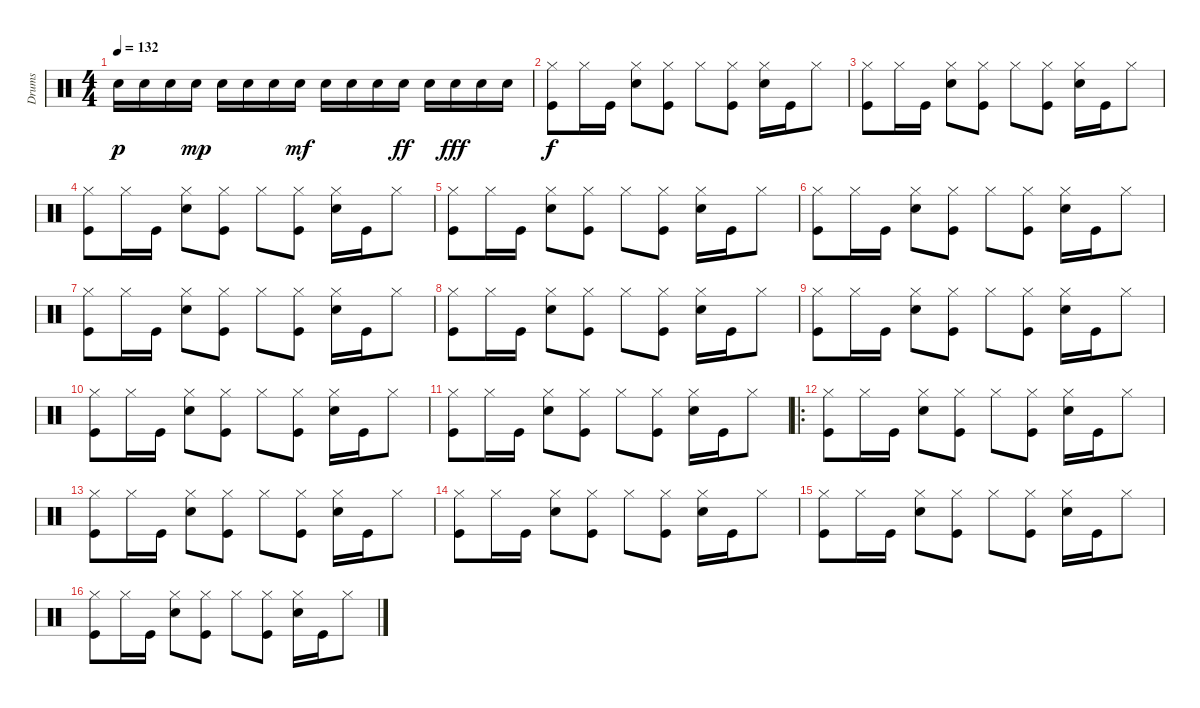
\track ("Drums" "Drums") {instrument percussion}
\staff {score}
\articulation defaults
\ts (4 4)
\tempo 132
\clef neutral
\ks c "Electric Snare (hit)".16{dy p} "Electric Snare (hit)".16 "Electric Snare (hit)".16 "Electric Snare (hit)".16{dy mp} "Electric Snare (hit)".16 "Electric Snare (hit)".16 "Electric Snare (hit)".16 "Electric Snare (hit)".16{dy mf} "Electric Snare (hit)".16 "Electric Snare (hit)".16 "Electric Snare (hit)".16 "Electric Snare (hit)".16{dy ff} "Electric Snare (hit)".16 "Electric Snare (hit)".16{dy fff} "Electric Snare (hit)".16 "Electric Snare (hit)".16
|
("Hi-Hat (closed)" "Kick (hit)").8{dy f} "Hi-Hat (closed)".16 "Kick (hit)".16 ("Hi-Hat (closed)" "Electric Snare (hit)").8 ("Hi-Hat (closed)" "Kick (hit)").8 "Hi-Hat (closed)".8 ("Hi-Hat (closed)" "Kick (hit)").8 ("Hi-Hat (closed)" "Electric Snare (hit)").16 "Kick (hit)".16 "Hi-Hat (closed)".8 |
("Hi-Hat (closed)" "Kick (hit)").8 "Hi-Hat (closed)".16 "Kick (hit)".16 ("Hi-Hat (closed)" "Electric Snare (hit)").8 ("Hi-Hat (closed)" "Kick (hit)").8 "Hi-Hat (closed)".8 ("Hi-Hat (closed)" "Kick (hit)").8 ("Hi-Hat (closed)" "Electric Snare (hit)").16 "Kick (hit)".16 "Hi-Hat (closed)".8 |
("Hi-Hat (closed)" "Kick (hit)").8 "Hi-Hat (closed)".16 "Kick (hit)".16 ("Hi-Hat (closed)" "Electric Snare (hit)").8 ("Hi-Hat (closed)" "Kick (hit)").8 "Hi-Hat (closed)".8 ("Hi-Hat (closed)" "Kick (hit)").8 ("Hi-Hat (closed)" "Electric Snare (hit)").16 "Kick (hit)".16 "Hi-Hat (closed)".8 |
("Hi-Hat (closed)" "Kick (hit)").8 "Hi-Hat (closed)".16 "Kick (hit)".16 ("Hi-Hat (closed)" "Electric Snare (hit)").8 ("Hi-Hat (closed)" "Kick (hit)").8 "Hi-Hat (closed)".8 ("Hi-Hat (closed)" "Kick (hit)").8 ("Hi-Hat (closed)" "Electric Snare (hit)").16 "Kick (hit)".16 "Hi-Hat (closed)".8 |
("Hi-Hat (closed)" "Kick (hit)").8 "Hi-Hat (closed)".16 "Kick (hit)".16 ("Hi-Hat (closed)" "Electric Snare (hit)").8 ("Hi-Hat (closed)" "Kick (hit)").8 "Hi-Hat (closed)".8 ("Hi-Hat (closed)" "Kick (hit)").8 ("Hi-Hat (closed)" "Electric Snare (hit)").16 "Kick (hit)".16 "Hi-Hat (closed)".8 |
("Hi-Hat (closed)" "Kick (hit)").8 "Hi-Hat (closed)".16 "Kick (hit)".16 ("Hi-Hat (closed)" "Electric Snare (hit)").8 ("Hi-Hat (closed)" "Kick (hit)").8 "Hi-Hat (closed)".8 ("Hi-Hat (closed)" "Kick (hit)").8 ("Hi-Hat (closed)" "Electric Snare (hit)").16 "Kick (hit)".16 "Hi-Hat (closed)".8 |
("Hi-Hat (closed)" "Kick (hit)").8 "Hi-Hat (closed)".16 "Kick (hit)".16 ("Hi-Hat (closed)" "Electric Snare (hit)").8 ("Hi-Hat (closed)" "Kick (hit)").8 "Hi-Hat (closed)".8 ("Hi-Hat (closed)" "Kick (hit)").8 ("Hi-Hat (closed)" "Electric Snare (hit)").16 "Kick (hit)".16 "Hi-Hat (closed)".8 |
("Hi-Hat (closed)" "Kick (hit)").8 "Hi-Hat (closed)".16 "Kick (hit)".16 ("Hi-Hat (closed)" "Electric Snare (hit)").8 ("Hi-Hat (closed)" "Kick (hit)").8 "Hi-Hat (closed)".8 ("Hi-Hat (closed)" "Kick (hit)").8 ("Hi-Hat (closed)" "Electric Snare (hit)").16 "Kick (hit)".16 "Hi-Hat (closed)".8 |
("Hi-Hat (closed)" "Kick (hit)").8 "Hi-Hat (closed)".16 "Kick (hit)".16 ("Hi-Hat (closed)" "Electric Snare (hit)").8 ("Hi-Hat (closed)" "Kick (hit)").8 "Hi-Hat (closed)".8 ("Hi-Hat (closed)" "Kick (hit)").8 ("Hi-Hat (closed)" "Electric Snare (hit)").16 "Kick (hit)".16 "Hi-Hat (closed)".8 |
("Hi-Hat (closed)" "Kick (hit)").8 "Hi-Hat (closed)".16 "Kick (hit)".16 ("Hi-Hat (closed)" "Electric Snare (hit)").8 ("Hi-Hat (closed)" "Kick (hit)").8 "Hi-Hat (closed)".8 ("Hi-Hat (closed)" "Kick (hit)").8 ("Hi-Hat (closed)" "Electric Snare (hit)").16 "Kick (hit)".16 "Hi-Hat (closed)".8 |
\ro
("Hi-Hat (closed)" "Kick (hit)").8 "Hi-Hat (closed)".16 "Kick (hit)".16 ("Hi-Hat (closed)" "Electric Snare (hit)").8 ("Hi-Hat (closed)" "Kick (hit)").8 "Hi-Hat (closed)".8 ("Hi-Hat (closed)" "Kick (hit)").8 ("Hi-Hat (closed)" "Electric Snare (hit)").16 "Kick (hit)".16 "Hi-Hat (closed)".8 |
("Hi-Hat (closed)" "Kick (hit)").8 "Hi-Hat (closed)".16 "Kick (hit)".16 ("Hi-Hat (closed)" "Electric Snare (hit)").8 ("Hi-Hat (closed)" "Kick (hit)").8 "Hi-Hat (closed)".8 ("Hi-Hat (closed)" "Kick (hit)").8 ("Hi-Hat (closed)" "Electric Snare (hit)").16 "Kick (hit)".16 "Hi-Hat (closed)".8 |
("Hi-Hat (closed)" "Kick (hit)").8 "Hi-Hat (closed)".16 "Kick (hit)".16 ("Hi-Hat (closed)" "Electric Snare (hit)").8 ("Hi-Hat (closed)" "Kick (hit)").8 "Hi-Hat (closed)".8 ("Hi-Hat (closed)" "Kick (hit)").8 ("Hi-Hat (closed)" "Electric Snare (hit)").16 "Kick (hit)".16 "Hi-Hat (closed)".8 |
("Hi-Hat (closed)" "Kick (hit)").8 "Hi-Hat (closed)".16 "Kick (hit)".16 ("Hi-Hat (closed)" "Electric Snare (hit)").8 ("Hi-Hat (closed)" "Kick (hit)").8 "Hi-Hat (closed)".8 ("Hi-Hat (closed)" "Kick (hit)").8 ("Hi-Hat (closed)" "Electric Snare (hit)").16 "Kick (hit)".16 "Hi-Hat (closed)".8 |
("Hi-Hat (closed)" "Kick (hit)").8 "Hi-Hat (closed)".16 "Kick (hit)".16 ("Hi-Hat (closed)" "Electric Snare (hit)").8 ("Hi-Hat (closed)" "Kick (hit)").8 "Hi-Hat (closed)".8 ("Hi-Hat (closed)" "Kick (hit)").8 ("Hi-Hat (closed)" "Electric Snare (hit)").16 "Kick (hit)".16 "Hi-Hat (closed)".8
